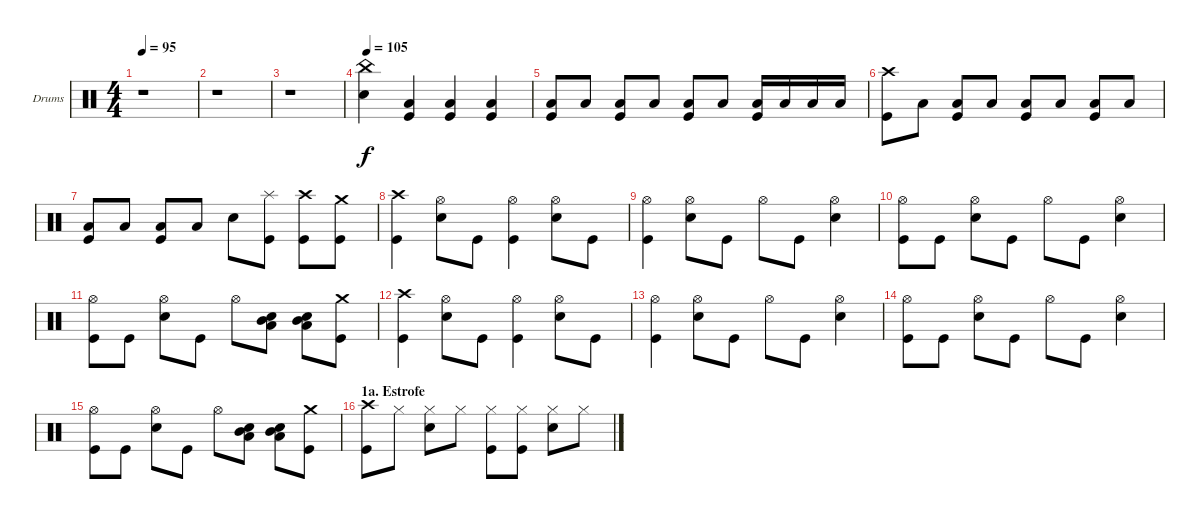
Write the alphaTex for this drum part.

\bracketExtendMode groupsimilarinstruments
\firstSystemTrackNameOrientation horizontal
\otherSystemsTrackNameOrientation horizontal
\track ("Drumkit" "Drums") {instrument percussion}
\staff {score}
\articulation defaults
\ts (4 4)
\tempo 95
\clef neutral
\ks c
r.1{dy f} |
r.1 |
r.1 |
\tempo 105
("China (hit)" "Snare (hit) 2").4 ("Low Tom (hit)" "Kick (hit)").4 ("Low Tom (hit)" "Kick (hit)").4 ("Low Tom (hit)" "Kick (hit)").4 |
("Low Tom (hit)" "Kick (hit)").8 "Low Tom (hit)".8 ("Low Tom (hit)" "Kick (hit)").8 "Low Tom (hit)".8 ("Low Tom (hit)" "Kick (hit)").8 "Low Tom (hit)".8 ("Low Tom (hit)" "Kick (hit)").16 "Low Tom (hit)".16 "Low Tom (hit)".16 "Low Tom (hit)".16 |
("Crash high (hit)" "Kick (hit)").8 "Low Tom (hit)".8 ("Low Tom (hit)" "Kick (hit)").8 "Low Tom (hit)".8 ("Low Tom (hit)" "Kick (hit)").8 "Low Tom (hit)".8 ("Low Tom (hit)" "Kick (hit)").8 "Low Tom (hit)".8 |
("Low Tom (hit)" "Kick (hit)").8 "Low Tom (hit)".8 ("Low Tom (hit)" "Kick (hit)").8 "Low Tom (hit)".8 "Snare (hit) 2".8 ("Splash (hit)" "Kick (hit)").8 ("Crash high (hit)" "Kick (hit)").8 ("Crash medium (hit)" "Kick (hit)").8 |
("Crash high (hit)" "Kick (hit)").4 ("Hi-Hat (open)" "Snare (hit) 2").8 "Kick (hit)".8 ("Hi-Hat (open)" "Kick (hit)").4 ("Hi-Hat (open)" "Snare (hit) 2").8 "Kick (hit)".8 |
("Hi-Hat (open)" "Kick (hit)").4 ("Hi-Hat (open)" "Snare (hit) 2").8 "Kick (hit)".8 "Hi-Hat (open)".8 "Kick (hit)".8 ("Hi-Hat (open)" "Snare (hit) 2").4 |
("Hi-Hat (open)" "Kick (hit)").8 "Kick (hit)".8 ("Hi-Hat (open)" "Snare (hit) 2").8 "Kick (hit)".8 "Hi-Hat (open)".8 "Kick (hit)".8 ("Hi-Hat (open)" "Snare (hit) 2").4 |
("Hi-Hat (open)" "Kick (hit)").8 "Kick (hit)".8 ("Hi-Hat (open)" "Snare (hit) 2").8 "Kick (hit)".8 "Hi-Hat (open)".8 ("Mid Tom (hit)" "Low Tom (hit)" "Snare (hit) 2").8 ("Mid Tom (hit)" "Low Tom (hit)" "Snare (hit) 2").8 ("Crash medium (hit)" "Kick (hit)").8 |
("Crash high (hit)" "Kick (hit)").4 ("Hi-Hat (open)" "Snare (hit) 2").8 "Kick (hit)".8 ("Hi-Hat (open)" "Kick (hit)").4 ("Hi-Hat (open)" "Snare (hit) 2").8 "Kick (hit)".8 |
("Hi-Hat (open)" "Kick (hit)").4 ("Hi-Hat (open)" "Snare (hit) 2").8 "Kick (hit)".8 "Hi-Hat (open)".8 "Kick (hit)".8 ("Hi-Hat (open)" "Snare (hit) 2").4 |
("Hi-Hat (open)" "Kick (hit)").8 "Kick (hit)".8 ("Hi-Hat (open)" "Snare (hit) 2").8 "Kick (hit)".8 "Hi-Hat (open)".8 "Kick (hit)".8 ("Hi-Hat (open)" "Snare (hit) 2").4 |
("Hi-Hat (open)" "Kick (hit)").8 "Kick (hit)".8 ("Hi-Hat (open)" "Snare (hit) 2").8 "Kick (hit)".8 "Hi-Hat (open)".8 ("Mid Tom (hit)" "Low Tom (hit)" "Snare (hit) 2").8 ("Mid Tom (hit)" "Low Tom (hit)" "Snare (hit) 2").8 ("Crash medium (hit)" "Kick (hit)").8 |
\section ("" "1a. Estrofe")
("Crash high (hit)" "Kick (hit)").8 "Hi-Hat (closed)".8 ("Hi-Hat (closed)" "Snare (hit) 2").8 "Hi-Hat (closed)".8 ("Hi-Hat (closed)" "Kick (hit)").8 ("Hi-Hat (closed)" "Kick (hit)").8 ("Hi-Hat (closed)" "Snare (hit) 2").8 "Hi-Hat (closed)".8
